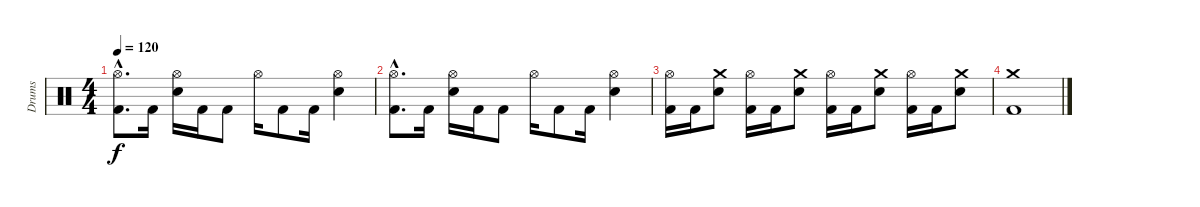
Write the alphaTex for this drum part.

\track ("Drums" "Drums") {instrument percussion}
\staff {score}
\articulation defaults
\ts (4 4)
\tempo 120
\clef neutral
\ks c
("Hi-Hat (open)"{hac} "Kick (hit) 2"{hac}).8{d dy f} "Kick (hit) 2".16 ("Hi-Hat (open)" "Electric Snare (hit)").16 "Kick (hit) 2".16 "Kick (hit) 2".8 "Hi-Hat (open)".16 "Kick (hit) 2".8 "Kick (hit) 2".16 ("Hi-Hat (open)" "Electric Snare (hit)").4 |
("Hi-Hat (open)"{hac} "Kick (hit) 2"{hac}).8{d} "Kick (hit) 2".16 ("Hi-Hat (open)" "Electric Snare (hit)").16 "Kick (hit) 2".16 "Kick (hit) 2".8 "Hi-Hat (open)".16 "Kick (hit) 2".8 "Kick (hit) 2".16 ("Hi-Hat (open)" "Electric Snare (hit)").4 |
("Hi-Hat (open)" "Kick (hit) 2").16 "Kick (hit) 2".16 ("Crash medium (hit)" "Electric Snare (hit)").8 ("Hi-Hat (open)" "Kick (hit) 2").16 "Kick (hit) 2".16 ("Crash medium (hit)" "Electric Snare (hit)").8 ("Hi-Hat (open)" "Kick (hit) 2").16 "Kick (hit) 2".16 ("Crash medium (hit)" "Electric Snare (hit)").8 ("Hi-Hat (open)" "Kick (hit) 2").16 "Kick (hit) 2".16 ("Crash medium (hit)" "Electric Snare (hit)").8 |
("Crash medium (hit)" "Kick (hit) 2").1
